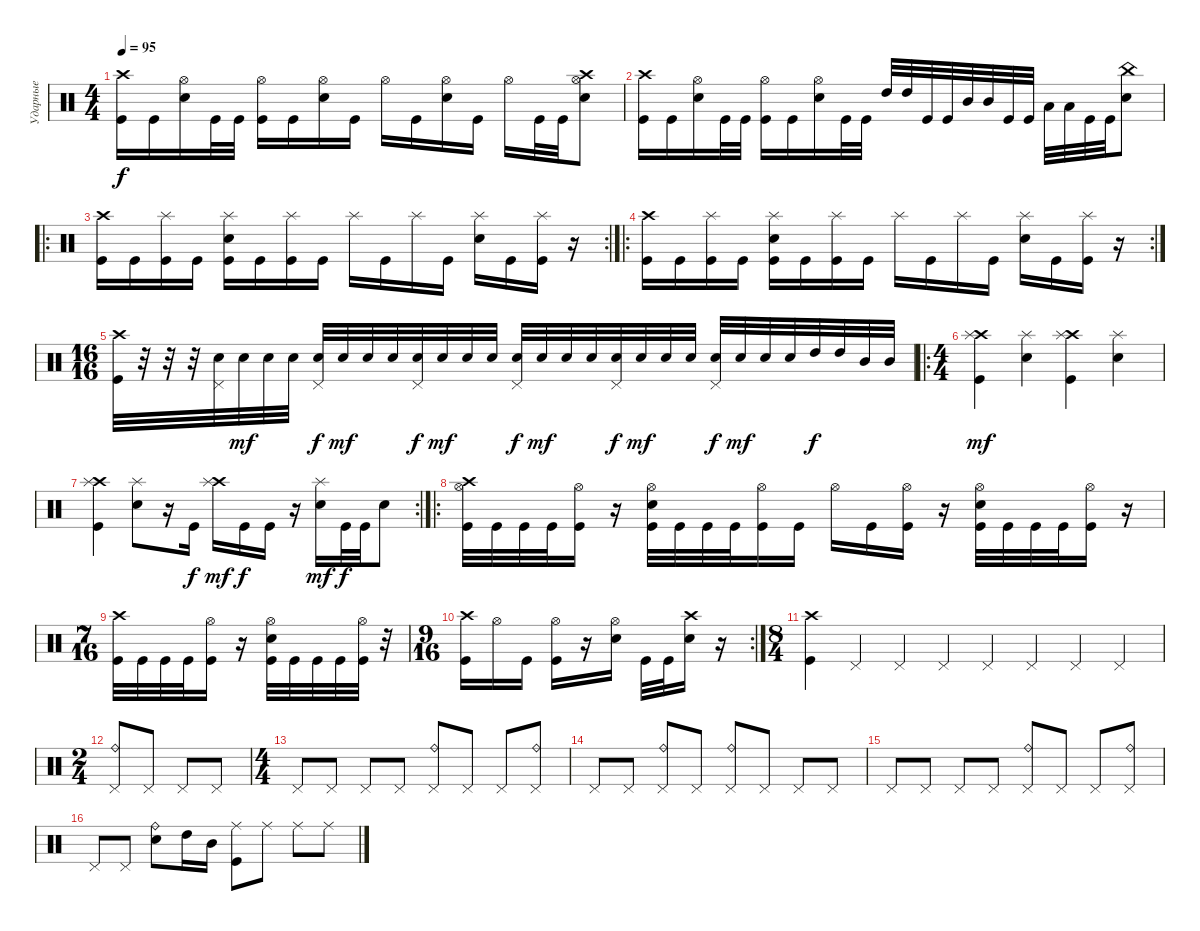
\track ("Ударные" "Ударные") {instrument percussion}
\staff {score}
\articulation defaults
\ts (4 4)
\tempo 95
\clef neutral
\ks c
("Crash high (hit)" "Kick (hit)").16{dy f} "Kick (hit)".16 ("Hi-Hat (open)" "Electric Snare (hit)").16 "Kick (hit)".32 "Kick (hit)".32 ("Hi-Hat (open)" "Kick (hit)").16 "Kick (hit)".16 ("Hi-Hat (open)" "Electric Snare (hit)").16 "Kick (hit)".16 "Hi-Hat (open)".16 "Kick (hit)".16 ("Hi-Hat (open)" "Electric Snare (hit)").16 "Kick (hit)".16 "Hi-Hat (open)".16 "Kick (hit)".32 "Kick (hit)".32 ("Hi-Hat (open)" "Crash high (hit)" "Electric Snare (hit)").8 |
("Crash high (hit)" "Kick (hit)").16 "Kick (hit)".16 ("Hi-Hat (open)" "Electric Snare (hit)").16 "Kick (hit)".32 "Kick (hit)".32 ("Hi-Hat (open)" "Kick (hit)").16 "Kick (hit)".16 ("Hi-Hat (open)" "Electric Snare (hit)").16 "Kick (hit)".32 "Kick (hit)".32 "High Tom (hit)".32 "High Tom (hit)".32 "Kick (hit)".32 "Kick (hit)".32 "Mid Tom (hit)".32 "Mid Tom (hit)".32 "Kick (hit)".32 "Kick (hit)".32 "Low Tom (hit)".32 "Low Tom (hit)".32 "Kick (hit)".32 "Kick (hit)".32 ("China (hit)" "Electric Snare (hit)").8 |
\ro
\rc 2
("Crash high (hit)" "Kick (hit)").16 "Kick (hit)".16 ("Splash (hit)" "Kick (hit)").16 "Kick (hit)".16 ("Splash (hit)" "Electric Snare (hit)" "Kick (hit)").16 "Kick (hit)".16 ("Splash (hit)" "Kick (hit)").16 "Kick (hit)".16 "Splash (hit)".16 "Kick (hit)".16 "Splash (hit)".16 "Kick (hit)".16 ("Splash (hit)" "Electric Snare (hit)").16 "Kick (hit)".16 ("Splash (hit)" "Kick (hit)").16 r.16 |
\ro
\rc 2
("Crash high (hit)" "Kick (hit)").16 "Kick (hit)".16 ("Splash (hit)" "Kick (hit)").16 "Kick (hit)".16 ("Splash (hit)" "Electric Snare (hit)" "Kick (hit)").16 "Kick (hit)".16 ("Splash (hit)" "Kick (hit)").16 "Kick (hit)".16 "Splash (hit)".16 "Kick (hit)".16 "Splash (hit)".16 "Kick (hit)".16 ("Splash (hit)" "Electric Snare (hit)").16 "Kick (hit)".16 ("Splash (hit)" "Kick (hit)").16 r.16 |
\ts (16 16)
("Kick (hit)" "Crash high (hit)").32 r.32 r.32 r.32 ("Pedal Hi-Hat (hit)" "Electric Snare (hit)").32 "Electric Snare (hit)".32{dy mf} "Electric Snare (hit)".32 "Electric Snare (hit)".32 ("Pedal Hi-Hat (hit)" "Electric Snare (hit)").32{dy f} "Electric Snare (hit)".32{dy mf} "Electric Snare (hit)".32 "Electric Snare (hit)".32 ("Pedal Hi-Hat (hit)" "Electric Snare (hit)").32{dy f} "Electric Snare (hit)".32{dy mf} "Electric Snare (hit)".32 "Electric Snare (hit)".32 ("Pedal Hi-Hat (hit)" "Electric Snare (hit)").32{dy f} "Electric Snare (hit)".32{dy mf} "Electric Snare (hit)".32 "Electric Snare (hit)".32 ("Pedal Hi-Hat (hit)" "Electric Snare (hit)").32{dy f} "Electric Snare (hit)".32{dy mf} "Electric Snare (hit)".32 "Electric Snare (hit)".32 ("Pedal Hi-Hat (hit)" "Electric Snare (hit)").32{dy f} "Electric Snare (hit)".32{dy mf} "Electric Snare (hit)".32 "Electric Snare (hit)".32 "High Tom (hit)".32{dy f} "High Tom (hit)".32 "Mid Tom (hit)".32 "Mid Tom (hit)".32 |
\ro
\ts (4 4)
("Crash high (hit)" "Splash (hit)" "Kick (hit)").4{dy mf} ("Splash (hit)" "Electric Snare (hit)").4 ("Crash high (hit)" "Splash (hit)" "Kick (hit)").4 ("Splash (hit)" "Electric Snare (hit)").4 |
\rc 2
("Crash high (hit)" "Splash (hit)" "Kick (hit)").4 ("Splash (hit)" "Electric Snare (hit)").8 r.16 "Kick (hit)".16{dy f} ("Crash high (hit)" "Splash (hit)").16{dy mf} "Kick (hit)".16{dy f} "Kick (hit)".16 r.16 ("Splash (hit)" "Electric Snare (hit)").16{dy mf} "Kick (hit)".32{dy f} "Kick (hit)".32 "Electric Snare (hit)".8 |
\ro
("Hi-Hat (open)" "Crash high (hit)" "Kick (hit)").32 "Kick (hit)".32 "Kick (hit)".32 "Kick (hit)".32 ("Hi-Hat (open)" "Kick (hit)").16 r.16 ("Hi-Hat (open)" "Electric Snare (hit)" "Kick (hit)").32 "Kick (hit)".32 "Kick (hit)".32 "Kick (hit)".32 ("Hi-Hat (open)" "Kick (hit)").16 "Kick (hit)".16 "Hi-Hat (open)".16 "Kick (hit)".16 ("Hi-Hat (open)" "Kick (hit)").16 r.16 ("Hi-Hat (open)" "Electric Snare (hit)" "Kick (hit)").32 "Kick (hit)".32 "Kick (hit)".32 "Kick (hit)".32 ("Hi-Hat (open)" "Kick (hit)").16 r.16 |
\ts (7 16)
("Crash high (hit)" "Kick (hit)").32 "Kick (hit)".32 "Kick (hit)".32 "Kick (hit)".32 ("Hi-Hat (open)" "Kick (hit)").16 r.16 ("Hi-Hat (open)" "Electric Snare (hit)" "Kick (hit)").32 "Kick (hit)".32 "Kick (hit)".32 "Kick (hit)".32 ("Hi-Hat (open)" "Kick (hit)").32 r.32 |
\rc 2
\ts (9 16)
("Crash high (hit)" "Kick (hit)").16 "Hi-Hat (open)".16 "Kick (hit)".16 ("Hi-Hat (open)" "Kick (hit)").16 r.16 ("Hi-Hat (open)" "Electric Snare (hit)").16 "Kick (hit)".32 "Kick (hit)".32 ("Electric Snare (hit)" "Crash high (hit)").16 r.16 |
\ts (8 4)
("Crash high (hit)" "Kick (hit)").4 "Pedal Hi-Hat (hit)".4 "Pedal Hi-Hat (hit)".4 "Pedal Hi-Hat (hit)".4 "Pedal Hi-Hat (hit)".4 "Pedal Hi-Hat (hit)".4 "Pedal Hi-Hat (hit)".4 "Pedal Hi-Hat (hit)".4 |
\ts (2 4)
("Ride (bell)" "Pedal Hi-Hat (hit)").8 "Pedal Hi-Hat (hit)".8 "Pedal Hi-Hat (hit)".8 "Pedal Hi-Hat (hit)".8 |
\ts (4 4)
"Pedal Hi-Hat (hit)".8 "Pedal Hi-Hat (hit)".8 "Pedal Hi-Hat (hit)".8 "Pedal Hi-Hat (hit)".8 ("Ride (bell)" "Pedal Hi-Hat (hit)").8 "Pedal Hi-Hat (hit)".8 "Pedal Hi-Hat (hit)".8 ("Ride (bell)" "Pedal Hi-Hat (hit)").8 |
"Pedal Hi-Hat (hit)".8 "Pedal Hi-Hat (hit)".8 ("Ride (bell)" "Pedal Hi-Hat (hit)").8 "Pedal Hi-Hat (hit)".8 ("Ride (bell)" "Pedal Hi-Hat (hit)").8 "Pedal Hi-Hat (hit)".8 "Pedal Hi-Hat (hit)".8 "Pedal Hi-Hat (hit)".8 |
"Pedal Hi-Hat (hit)".8 "Pedal Hi-Hat (hit)".8 "Pedal Hi-Hat (hit)".8 "Pedal Hi-Hat (hit)".8 ("Ride (bell)" "Pedal Hi-Hat (hit)").8 "Pedal Hi-Hat (hit)".8 "Pedal Hi-Hat (hit)".8 ("Ride (bell)" "Pedal Hi-Hat (hit)").8 |
"Pedal Hi-Hat (hit)".8 "Pedal Hi-Hat (hit)".8 ("Ride (bell)" "Electric Snare (hit)").8 "High Tom (hit)".16 "Mid Tom (hit)".16 ("Ride (middle)" "Kick (hit)").8 "Ride (middle)".8 "Ride (middle)".8 "Ride (middle)".8
